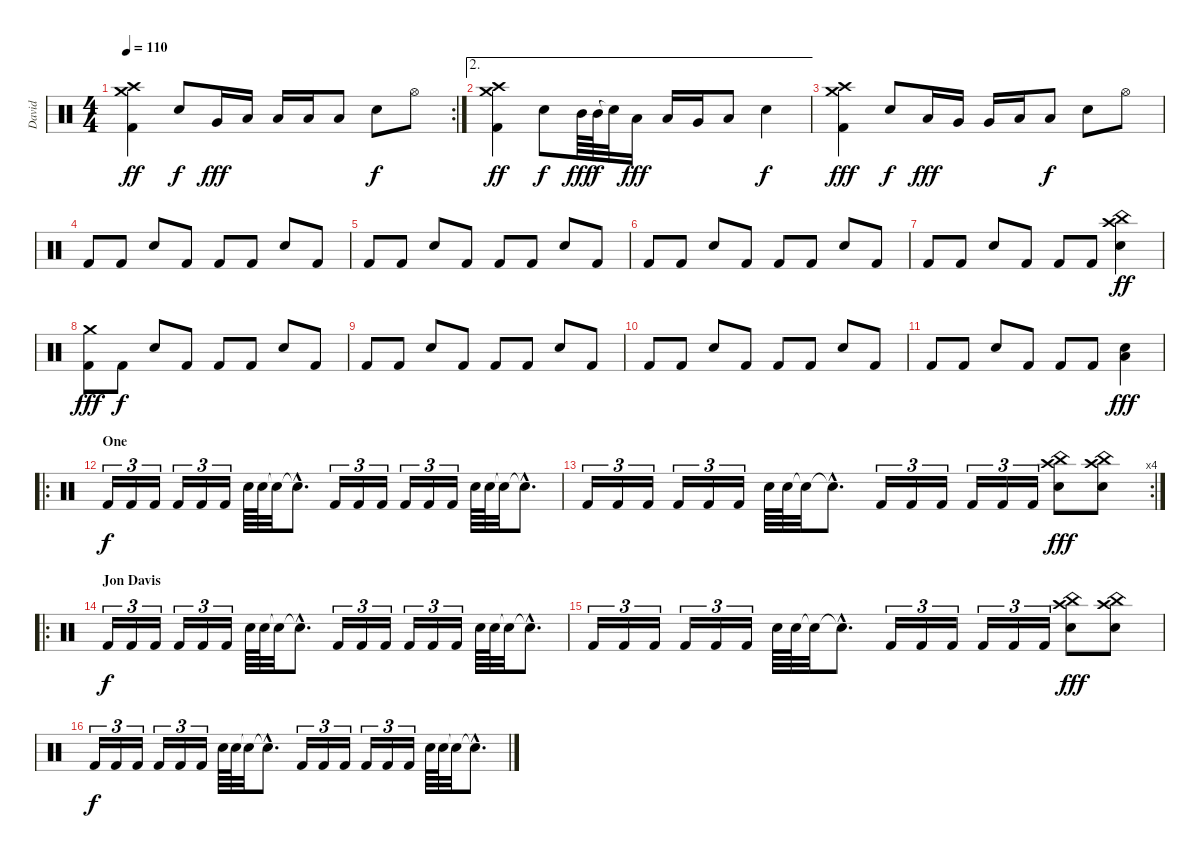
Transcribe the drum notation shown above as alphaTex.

\track ("David" "David") {instrument percussion}
\staff {score}
\articulation defaults
\rc 2
\ts (4 4)
\tempo 110
\clef neutral
\ks c
("Crash medium (hit)" "Crash high (hit)" "Kick (hit) 2").4{dy ff} "Snare (hit) 2".8{dy f} "Very Low Tom (hit)".16{dy fff} "Low Floor Tom (hit)".16 "Low Floor Tom (hit)".16 "Low Floor Tom (hit)".16 "Low Floor Tom (hit)".8 "Snare (hit) 2".8{dy f} "Hi-Hat (open)".8 |
\ae 2
("Crash medium (hit)" "Crash high (hit)" "Kick (hit) 2").4{dy ff} "Snare (hit) 2".8{dy f} "Mid Tom (hit)".64{dy fff} "Mid Tom (hit)".64{dy f} "Snare (hit)"{t}.32 "Low Tom (hit)".16{dy fff} "Low Tom (hit)".16 "Very Low Tom (hit)".16 "Low Floor Tom (hit)".8 "Snare (hit) 2".4{dy f} |
("Crash medium (hit)" "Crash high (hit)" "Kick (hit) 2").4{dy fff} "Snare (hit) 2".8{dy f} "Low Tom (hit)".16{dy fff} "Very Low Tom (hit)".16 "Very Low Tom (hit)".16 "Low Floor Tom (hit)".16 "Low Floor Tom (hit)".8{dy f} "Snare (hit) 2".8 "Hi-Hat (open)".8 |
"Kick (hit) 2".8 "Kick (hit) 2".8 "Snare (hit) 2".8 "Kick (hit) 2".8 "Kick (hit) 2".8 "Kick (hit) 2".8 "Snare (hit) 2".8 "Kick (hit) 2".8 |
"Kick (hit) 2".8 "Kick (hit) 2".8 "Snare (hit) 2".8 "Kick (hit) 2".8 "Kick (hit) 2".8 "Kick (hit) 2".8 "Snare (hit) 2".8 "Kick (hit) 2".8 |
"Kick (hit) 2".8 "Kick (hit) 2".8 "Snare (hit) 2".8 "Kick (hit) 2".8 "Kick (hit) 2".8 "Kick (hit) 2".8 "Snare (hit) 2".8 "Kick (hit) 2".8 |
"Kick (hit) 2".8 "Kick (hit) 2".8 "Snare (hit) 2".8 "Kick (hit) 2".8 "Kick (hit) 2".8 "Kick (hit) 2".8 ("Snare (hit) 2" "China (hit)" "Crash high (hit)").4{dy ff} |
("Crash medium (hit)" "Kick (hit) 2").8{dy fff} "Kick (hit) 2".8{dy f} "Snare (hit) 2".8 "Kick (hit) 2".8 "Kick (hit) 2".8 "Kick (hit) 2".8 "Snare (hit) 2".8 "Kick (hit) 2".8 |
"Kick (hit) 2".8 "Kick (hit) 2".8 "Snare (hit) 2".8 "Kick (hit) 2".8 "Kick (hit) 2".8 "Kick (hit) 2".8 "Snare (hit) 2".8 "Kick (hit) 2".8 |
"Kick (hit) 2".8 "Kick (hit) 2".8 "Snare (hit) 2".8 "Kick (hit) 2".8 "Kick (hit) 2".8 "Kick (hit) 2".8 "Snare (hit) 2".8 "Kick (hit) 2".8 |
"Kick (hit) 2".8 "Kick (hit) 2".8 "Snare (hit) 2".8 "Kick (hit) 2".8 "Kick (hit) 2".8 "Kick (hit) 2".8 ("Snare (hit) 2" "Low Floor Tom (hit)").4{dy fff} |
\ro
\section ("" "One")
"Kick (hit) 2".16{tu (3 2) dy f volume 16} "Kick (hit) 2".16{tu (3 2)} "Kick (hit) 2".16{tu (3 2)} "Kick (hit) 2".16{tu (3 2)} "Kick (hit) 2".16{tu (3 2)} "Kick (hit) 2".16{tu (3 2)} "Snare (hit) 2".64 "Snare (hit) 2".64 "Snare (hit)"{t}.32 "Snare (hit)"{hac t}.8{d} "Kick (hit) 2".16{tu (3 2)} "Kick (hit) 2".16{tu (3 2)} "Kick (hit) 2".16{tu (3 2)} "Kick (hit) 2".16{tu (3 2)} "Kick (hit) 2".16{tu (3 2)} "Kick (hit) 2".16{tu (3 2)} "Snare (hit) 2".64 "Snare (hit) 2".64 "Snare (hit) 2"{t}.32 "Snare (hit)"{hac t}.8{d} |
\rc 4 "Kick (hit) 2".16{tu (3 2)} "Kick (hit) 2".16{tu (3 2)} "Kick (hit) 2".16{tu (3 2)} "Kick (hit) 2".16{tu (3 2)} "Kick (hit) 2".16{tu (3 2)} "Kick (hit) 2".16{tu (3 2)} "Snare (hit) 2".64 "Snare (hit) 2".64 "Snare (hit)"{t}.32 "Snare (hit)"{hac t}.8{d} "Kick (hit) 2".16{tu (3 2)} "Kick (hit) 2".16{tu (3 2)} "Kick (hit) 2".16{tu (3 2)} "Kick (hit) 2".16{tu (3 2)} "Kick (hit) 2".16{tu (3 2)} "Kick (hit) 2".16{tu (3 2)}
("Crash high (hit)" "China (hit)" "Snare (hit) 2").8{dy fff} ("Crash high (hit)" "China (hit)" "Snare (hit) 2").8 |
\ro
\section ("" "Jon Davis")
"Kick (hit) 2".16{tu (3 2) dy f} "Kick (hit) 2".16{tu (3 2)} "Kick (hit) 2".16{tu (3 2)} "Kick (hit) 2".16{tu (3 2)} "Kick (hit) 2".16{tu (3 2)} "Kick (hit) 2".16{tu (3 2)} "Snare (hit) 2".64 "Snare (hit) 2".64 "Snare (hit)"{t}.32 "Snare (hit)"{hac t}.8{d} "Kick (hit) 2".16{tu (3 2)} "Kick (hit) 2".16{tu (3 2)} "Kick (hit) 2".16{tu (3 2)} "Kick (hit) 2".16{tu (3 2)} "Kick (hit) 2".16{tu (3 2)} "Kick (hit) 2".16{tu (3 2)} "Snare (hit) 2".64 "Snare (hit) 2".64 "Snare (hit) 2"{t}.32 "Snare (hit)"{hac t}.8{d} |
"Kick (hit) 2".16{tu (3 2)} "Kick (hit) 2".16{tu (3 2)} "Kick (hit) 2".16{tu (3 2)} "Kick (hit) 2".16{tu (3 2)} "Kick (hit) 2".16{tu (3 2)} "Kick (hit) 2".16{tu (3 2)} "Snare (hit) 2".64 "Snare (hit) 2".64 "Snare (hit)"{t}.32 "Snare (hit)"{hac t}.8{d} "Kick (hit) 2".16{tu (3 2)} "Kick (hit) 2".16{tu (3 2)} "Kick (hit) 2".16{tu (3 2)} "Kick (hit) 2".16{tu (3 2)} "Kick (hit) 2".16{tu (3 2)} "Kick (hit) 2".16{tu (3 2)} ("Crash high (hit)" "China (hit)" "Snare (hit) 2").8{dy fff} ("Crash high (hit)" "China (hit)" "Snare (hit) 2").8 |
"Kick (hit) 2".16{tu (3 2) dy f} "Kick (hit) 2".16{tu (3 2)} "Kick (hit) 2".16{tu (3 2)} "Kick (hit) 2".16{tu (3 2)} "Kick (hit) 2".16{tu (3 2)} "Kick (hit) 2".16{tu (3 2)} "Snare (hit) 2".64 "Snare (hit) 2".64 "Snare (hit)"{t}.32 "Snare (hit)"{hac t}.8{d} "Kick (hit) 2".16{tu (3 2)} "Kick (hit) 2".16{tu (3 2)} "Kick (hit) 2".16{tu (3 2)} "Kick (hit) 2".16{tu (3 2)} "Kick (hit) 2".16{tu (3 2)} "Kick (hit) 2".16{tu (3 2)} "Snare (hit) 2".64 "Snare (hit) 2".64 "Snare (hit) 2"{t}.32 "Snare (hit)"{hac t}.8{d}
